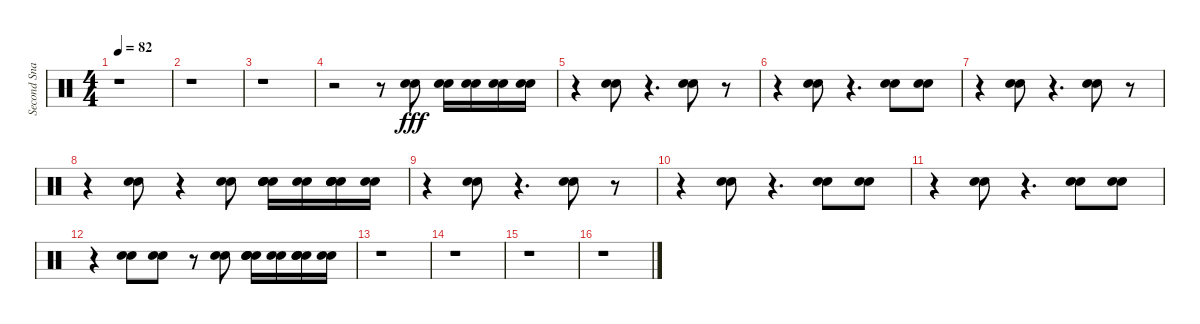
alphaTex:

\track ("Second Snare" "Second Sna") {instrument percussion}
\staff {score}
\articulation defaults
\ts (4 4)
\tempo 82
\clef neutral
\ks c
r.1{dy fff} |
r.1 |
r.1 |
r.2 r.8 ("Electric Snare (hit)" "Snare (hit) 2").8 ("Electric Snare (hit)" "Snare (hit) 2").16 ("Electric Snare (hit)" "Snare (hit) 2").16 ("Electric Snare (hit)" "Snare (hit) 2").16 ("Electric Snare (hit)" "Snare (hit) 2").16 |
r.4 ("Snare (hit) 2" "Electric Snare (hit)").8 r.4{d} ("Snare (hit) 2" "Electric Snare (hit)").8 r.8 |
r.4 ("Snare (hit) 2" "Electric Snare (hit)").8 r.4{d} ("Snare (hit) 2" "Electric Snare (hit)").8 ("Snare (hit) 2" "Electric Snare (hit)").8 |
r.4 ("Snare (hit) 2" "Electric Snare (hit)").8 r.4{d} ("Snare (hit) 2" "Electric Snare (hit)").8 r.8 |
r.4 ("Snare (hit) 2" "Electric Snare (hit)").8 r.4 ("Snare (hit) 2" "Electric Snare (hit)").8 ("Snare (hit) 2" "Snare (hit) 2" "Electric Snare (hit)" "Electric Snare (hit)").16 ("Snare (hit) 2" "Electric Snare (hit)").16 ("Snare (hit) 2" "Snare (hit) 2" "Electric Snare (hit)" "Electric Snare (hit)").16 ("Snare (hit) 2" "Electric Snare (hit)").16 |
r.4 ("Snare (hit) 2" "Electric Snare (hit)").8 r.4{d} ("Snare (hit) 2" "Electric Snare (hit)").8 r.8 |
r.4 ("Snare (hit) 2" "Electric Snare (hit)").8 r.4{d} ("Snare (hit) 2" "Electric Snare (hit)").8 ("Snare (hit) 2" "Electric Snare (hit)").8 |
r.4 ("Snare (hit) 2" "Electric Snare (hit)").8 r.4{d} ("Snare (hit) 2" "Electric Snare (hit)").8 ("Snare (hit) 2" "Electric Snare (hit)").8 |
r.4 ("Snare (hit) 2" "Electric Snare (hit)").8 ("Snare (hit) 2" "Electric Snare (hit)").8 r.8 ("Snare (hit) 2" "Electric Snare (hit)").8 ("Snare (hit) 2" "Snare (hit) 2" "Electric Snare (hit)" "Electric Snare (hit)").16 ("Snare (hit) 2" "Electric Snare (hit)").16 ("Snare (hit) 2" "Snare (hit) 2" "Electric Snare (hit)" "Electric Snare (hit)").16 ("Snare (hit) 2" "Electric Snare (hit)").16 |
r.1 |
r.1 |
r.1 |
r.1
